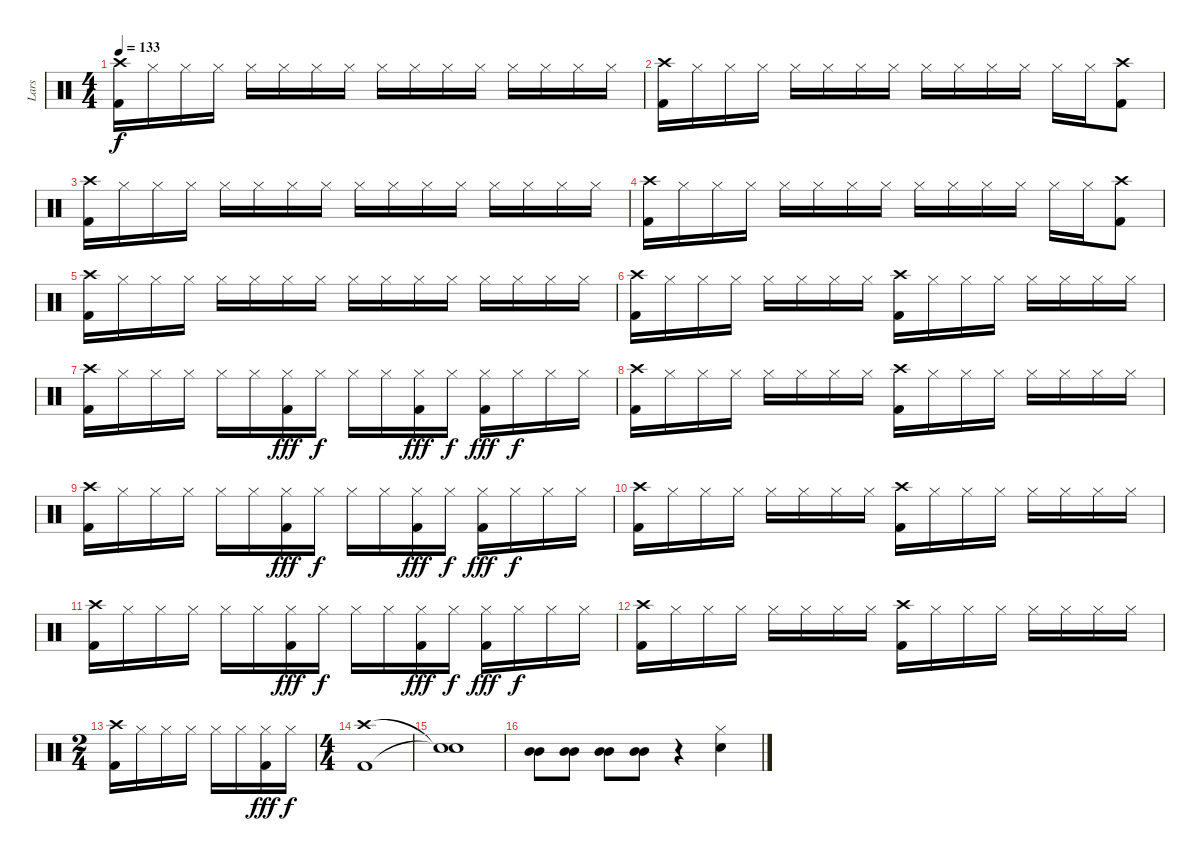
\track ("Lars" "Lars") {instrument percussion}
\staff {score}
\articulation defaults
\ts (4 4)
\tempo 133
\clef neutral
\ks c
("Crash high (hit)" "Kick (hit) 2").16{dy f} "Hi-Hat (closed)".16 "Hi-Hat (closed)".16 "Hi-Hat (closed)".16 "Hi-Hat (closed)".16 "Hi-Hat (closed)".16 "Hi-Hat (closed)".16 "Hi-Hat (closed)".16 "Hi-Hat (closed)".16 "Hi-Hat (closed)".16 "Hi-Hat (closed)".16 "Hi-Hat (closed)".16 "Hi-Hat (closed)".16 "Hi-Hat (closed)".16 "Hi-Hat (closed)".16 "Hi-Hat (closed)".16 |
("Crash high (hit)" "Kick (hit) 2").16 "Hi-Hat (closed)".16 "Hi-Hat (closed)".16 "Hi-Hat (closed)".16 "Hi-Hat (closed)".16 "Hi-Hat (closed)".16 "Hi-Hat (closed)".16 "Hi-Hat (closed)".16 "Hi-Hat (closed)".16 "Hi-Hat (closed)".16 "Hi-Hat (closed)".16 "Hi-Hat (closed)".16 "Hi-Hat (closed)".16 "Hi-Hat (closed)".16 ("Crash high (hit)" "Kick (hit) 2").8 |
("Crash high (hit)" "Kick (hit) 2").16 "Hi-Hat (closed)".16 "Hi-Hat (closed)".16 "Hi-Hat (closed)".16 "Hi-Hat (closed)".16 "Hi-Hat (closed)".16 "Hi-Hat (closed)".16 "Hi-Hat (closed)".16 "Hi-Hat (closed)".16 "Hi-Hat (closed)".16 "Hi-Hat (closed)".16 "Hi-Hat (closed)".16 "Hi-Hat (closed)".16 "Hi-Hat (closed)".16 "Hi-Hat (closed)".16 "Hi-Hat (closed)".16 |
("Crash high (hit)" "Kick (hit) 2").16 "Hi-Hat (closed)".16 "Hi-Hat (closed)".16 "Hi-Hat (closed)".16 "Hi-Hat (closed)".16 "Hi-Hat (closed)".16 "Hi-Hat (closed)".16 "Hi-Hat (closed)".16 "Hi-Hat (closed)".16 "Hi-Hat (closed)".16 "Hi-Hat (closed)".16 "Hi-Hat (closed)".16 "Hi-Hat (closed)".16 "Hi-Hat (closed)".16 ("Crash high (hit)" "Kick (hit) 2").8 |
("Crash high (hit)" "Kick (hit) 2").16 "Hi-Hat (closed)".16 "Hi-Hat (closed)".16 "Hi-Hat (closed)".16 "Hi-Hat (closed)".16 "Hi-Hat (closed)".16 "Hi-Hat (closed)".16 "Hi-Hat (closed)".16 "Hi-Hat (closed)".16 "Hi-Hat (closed)".16 "Hi-Hat (closed)".16 "Hi-Hat (closed)".16 "Hi-Hat (closed)".16 "Hi-Hat (closed)".16 "Hi-Hat (closed)".16 "Hi-Hat (closed)".16 |
("Crash high (hit)" "Kick (hit) 2").16 "Hi-Hat (closed)".16 "Hi-Hat (closed)".16 "Hi-Hat (closed)".16 "Hi-Hat (closed)".16 "Hi-Hat (closed)".16 "Hi-Hat (closed)".16 "Hi-Hat (closed)".16 ("Crash high (hit)" "Kick (hit) 2").16 "Hi-Hat (closed)".16 "Hi-Hat (closed)".16 "Hi-Hat (closed)".16 "Hi-Hat (closed)".16 "Hi-Hat (closed)".16 "Hi-Hat (closed)".16 "Hi-Hat (closed)".16 |
("Crash high (hit)" "Kick (hit) 2").16 "Hi-Hat (closed)".16 "Hi-Hat (closed)".16 "Hi-Hat (closed)".16 "Hi-Hat (closed)".16 "Hi-Hat (closed)".16 ("Hi-Hat (closed)" "Kick (hit) 2").16{dy fff} "Hi-Hat (closed)".16{dy f} "Hi-Hat (closed)".16 "Hi-Hat (closed)".16 ("Hi-Hat (closed)" "Kick (hit) 2").16{dy fff} "Hi-Hat (closed)".16{dy f} ("Hi-Hat (closed)" "Kick (hit) 2").16{dy fff} "Hi-Hat (closed)".16{dy f} "Hi-Hat (closed)".16 "Hi-Hat (closed)".16 |
("Crash high (hit)" "Kick (hit) 2").16 "Hi-Hat (closed)".16 "Hi-Hat (closed)".16 "Hi-Hat (closed)".16 "Hi-Hat (closed)".16 "Hi-Hat (closed)".16 "Hi-Hat (closed)".16 "Hi-Hat (closed)".16 ("Crash high (hit)" "Kick (hit) 2").16 "Hi-Hat (closed)".16 "Hi-Hat (closed)".16 "Hi-Hat (closed)".16 "Hi-Hat (closed)".16 "Hi-Hat (closed)".16 "Hi-Hat (closed)".16 "Hi-Hat (closed)".16 |
("Crash high (hit)" "Kick (hit) 2").16 "Hi-Hat (closed)".16 "Hi-Hat (closed)".16 "Hi-Hat (closed)".16 "Hi-Hat (closed)".16 "Hi-Hat (closed)".16 ("Hi-Hat (closed)" "Kick (hit) 2").16{dy fff} "Hi-Hat (closed)".16{dy f} "Hi-Hat (closed)".16 "Hi-Hat (closed)".16 ("Hi-Hat (closed)" "Kick (hit) 2").16{dy fff} "Hi-Hat (closed)".16{dy f} ("Hi-Hat (closed)" "Kick (hit) 2").16{dy fff} "Hi-Hat (closed)".16{dy f} "Hi-Hat (closed)".16 "Hi-Hat (closed)".16 |
("Crash high (hit)" "Kick (hit) 2").16 "Hi-Hat (closed)".16 "Hi-Hat (closed)".16 "Hi-Hat (closed)".16 "Hi-Hat (closed)".16 "Hi-Hat (closed)".16 "Hi-Hat (closed)".16 "Hi-Hat (closed)".16 ("Crash high (hit)" "Kick (hit) 2").16 "Hi-Hat (closed)".16 "Hi-Hat (closed)".16 "Hi-Hat (closed)".16 "Hi-Hat (closed)".16 "Hi-Hat (closed)".16 "Hi-Hat (closed)".16 "Hi-Hat (closed)".16 |
("Crash high (hit)" "Kick (hit) 2").16 "Hi-Hat (closed)".16 "Hi-Hat (closed)".16 "Hi-Hat (closed)".16 "Hi-Hat (closed)".16 "Hi-Hat (closed)".16 ("Hi-Hat (closed)" "Kick (hit) 2").16{dy fff} "Hi-Hat (closed)".16{dy f} "Hi-Hat (closed)".16 "Hi-Hat (closed)".16 ("Hi-Hat (closed)" "Kick (hit) 2").16{dy fff} "Hi-Hat (closed)".16{dy f} ("Hi-Hat (closed)" "Kick (hit) 2").16{dy fff} "Hi-Hat (closed)".16{dy f} "Hi-Hat (closed)".16 "Hi-Hat (closed)".16 |
("Crash high (hit)" "Kick (hit) 2").16 "Hi-Hat (closed)".16 "Hi-Hat (closed)".16 "Hi-Hat (closed)".16 "Hi-Hat (closed)".16 "Hi-Hat (closed)".16 "Hi-Hat (closed)".16 "Hi-Hat (closed)".16 ("Crash high (hit)" "Kick (hit) 2").16 "Hi-Hat (closed)".16 "Hi-Hat (closed)".16 "Hi-Hat (closed)".16 "Hi-Hat (closed)".16 "Hi-Hat (closed)".16 "Hi-Hat (closed)".16 "Hi-Hat (closed)".16 |
\ts (2 4)
("Crash high (hit)" "Kick (hit) 2").16 "Hi-Hat (closed)".16 "Hi-Hat (closed)".16 "Hi-Hat (closed)".16 "Hi-Hat (closed)".16 "Hi-Hat (closed)".16 ("Hi-Hat (closed)" "Kick (hit) 2").16{dy fff} "Hi-Hat (closed)".16{dy f} |
\ts (4 4)
("Crash high (hit)" "Kick (hit) 2").1 |
("Snare (hit)"{t} "Snare (hit)"{t}).1 |
("Mid Tom (hit)" "Mid Tom (hit)").8 ("Mid Tom (hit)" "Mid Tom (hit)").8 ("Mid Tom (hit)" "Mid Tom (hit)").8 ("Mid Tom (hit)" "Mid Tom (hit)").8 r.4 ("Hi-Hat (closed)" "Electric Snare (hit)").4
